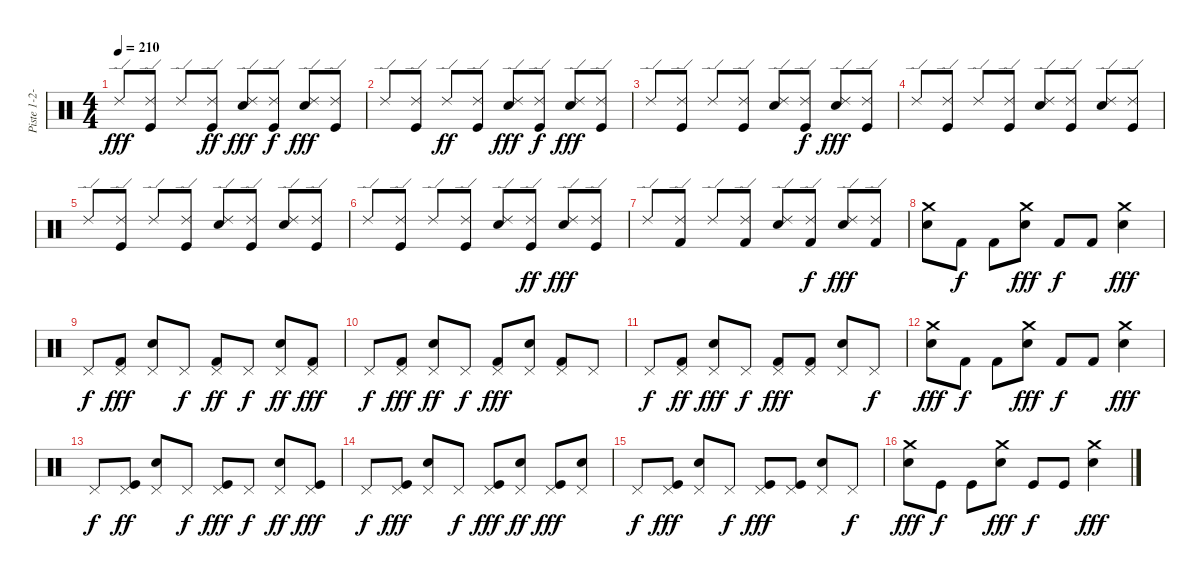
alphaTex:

\track ("Piste 1-2-3-4" "Piste 1-2-") {instrument percussion}
\staff {score}
\articulation defaults
\ts (4 4)
\tempo 210
\clef neutral
\ks c "Ride (edge) 2".8{dy fff}
("Ride (edge) 2" "Kick (hit)").8 "Ride (edge) 2".8 ("Ride (edge) 2" "Kick (hit)").8{dy ff} ("Ride (edge) 2" "Snare (hit) 2").8{dy fff} ("Ride (edge) 2" "Kick (hit)").8{dy f} ("Ride (edge) 2" "Snare (hit) 2").8{dy fff} ("Ride (edge) 2" "Kick (hit)").8 |
"Ride (edge) 2".8 ("Ride (edge) 2" "Kick (hit)").8 "Ride (edge) 2".8{dy ff} ("Ride (edge) 2" "Kick (hit)").8 ("Ride (edge) 2" "Snare (hit) 2").8{dy fff} ("Ride (edge) 2" "Kick (hit)").8{dy f} ("Ride (edge) 2" "Snare (hit) 2").8{dy fff} ("Ride (edge) 2" "Kick (hit)").8 |
"Ride (edge) 2".8 ("Ride (edge) 2" "Kick (hit)").8 "Ride (edge) 2".8 ("Ride (edge) 2" "Kick (hit)").8 ("Ride (edge) 2" "Snare (hit) 2").8 ("Ride (edge) 2" "Kick (hit)").8{dy f} ("Ride (edge) 2" "Snare (hit) 2").8{dy fff} ("Ride (edge) 2" "Kick (hit)").8 |
"Ride (edge) 2".8 ("Ride (edge) 2" "Kick (hit)").8 "Ride (edge) 2".8 ("Ride (edge) 2" "Kick (hit)").8 ("Ride (edge) 2" "Snare (hit) 2").8 ("Ride (edge) 2" "Kick (hit)").8 ("Ride (edge) 2" "Snare (hit) 2").8 ("Ride (edge) 2" "Kick (hit)").8 |
"Ride (edge) 2".8 ("Ride (edge) 2" "Kick (hit)").8 "Ride (edge) 2".8 ("Ride (edge) 2" "Kick (hit)").8 ("Ride (edge) 2" "Snare (hit) 2").8 ("Ride (edge) 2" "Kick (hit)").8 ("Ride (edge) 2" "Snare (hit) 2").8 ("Ride (edge) 2" "Kick (hit)").8 |
"Ride (edge) 2".8 ("Ride (edge) 2" "Kick (hit)").8 "Ride (edge) 2".8 ("Ride (edge) 2" "Kick (hit)").8 ("Ride (edge) 2" "Snare (hit) 2").8 ("Ride (edge) 2" "Kick (hit)").8{dy ff} ("Ride (edge) 2" "Snare (hit) 2").8{dy fff} ("Ride (edge) 2" "Kick (hit)").8 |
"Ride (edge) 2".8 ("Ride (edge) 2" "Kick (hit) 2").8 "Ride (edge) 2".8 ("Ride (edge) 2" "Kick (hit) 2").8 ("Ride (edge) 2" "Snare (hit) 2").8 ("Ride (edge) 2" "Kick (hit) 2").8{dy f} ("Ride (edge) 2" "Snare (hit) 2").8{dy fff} ("Ride (edge) 2" "Kick (hit) 2").8 |
("Crash medium (hit)" "Snare (hit) 2").8 "Kick (hit) 2".8{dy f} "Kick (hit) 2".8 ("Crash medium (hit)" "Snare (hit) 2").8{dy fff} "Kick (hit) 2".8{dy f} "Kick (hit) 2".8 ("Crash medium (hit)" "Snare (hit) 2").4{dy fff} |
"Pedal Hi-Hat (hit)".8{dy f} ("Pedal Hi-Hat (hit)" "Kick (hit) 2").8{dy fff} ("Pedal Hi-Hat (hit)" "Snare (hit) 2").8 "Pedal Hi-Hat (hit)".8{dy f} ("Pedal Hi-Hat (hit)" "Kick (hit) 2").8{dy ff} "Pedal Hi-Hat (hit)".8{dy f} ("Pedal Hi-Hat (hit)" "Snare (hit) 2").8{dy ff} ("Pedal Hi-Hat (hit)" "Kick (hit) 2").8{dy fff} |
"Pedal Hi-Hat (hit)".8{dy f} ("Pedal Hi-Hat (hit)" "Kick (hit) 2").8{dy fff} ("Pedal Hi-Hat (hit)" "Snare (hit) 2").8{dy ff} "Pedal Hi-Hat (hit)".8{dy f} ("Pedal Hi-Hat (hit)" "Kick (hit) 2").8{dy fff} ("Pedal Hi-Hat (hit)" "Snare (hit) 2").8 ("Pedal Hi-Hat (hit)" "Kick (hit) 2").8 "Pedal Hi-Hat (hit)".8 |
"Pedal Hi-Hat (hit)".8{dy f} ("Pedal Hi-Hat (hit)" "Kick (hit) 2").8{dy ff} ("Pedal Hi-Hat (hit)" "Snare (hit) 2").8{dy fff} "Pedal Hi-Hat (hit)".8{dy f} ("Pedal Hi-Hat (hit)" "Kick (hit) 2").8{dy fff} ("Pedal Hi-Hat (hit)" "Kick (hit) 2").8 ("Pedal Hi-Hat (hit)" "Snare (hit) 2").8 "Pedal Hi-Hat (hit)".8{dy f} |
("Crash medium (hit)" "Snare (hit) 2").8{dy fff} "Kick (hit) 2".8{dy f} "Kick (hit) 2".8 ("Crash medium (hit)" "Snare (hit) 2").8{dy fff} "Kick (hit) 2".8{dy f} "Kick (hit) 2".8 ("Crash medium (hit)" "Snare (hit) 2").4{dy fff} |
"Pedal Hi-Hat (hit)".8{dy f} ("Pedal Hi-Hat (hit)" "Kick (hit)").8{dy ff} ("Pedal Hi-Hat (hit)" "Snare (hit) 2").8 "Pedal Hi-Hat (hit)".8{dy f} ("Pedal Hi-Hat (hit)" "Kick (hit)").8{dy fff} "Pedal Hi-Hat (hit)".8{dy f} ("Pedal Hi-Hat (hit)" "Snare (hit) 2").8{dy ff} ("Pedal Hi-Hat (hit)" "Kick (hit)").8{dy fff} |
"Pedal Hi-Hat (hit)".8{dy f} ("Pedal Hi-Hat (hit)" "Kick (hit)").8{dy fff} ("Pedal Hi-Hat (hit)" "Snare (hit) 2").8 "Pedal Hi-Hat (hit)".8{dy f} ("Pedal Hi-Hat (hit)" "Kick (hit)").8{dy fff} ("Pedal Hi-Hat (hit)" "Snare (hit) 2").8{dy ff} ("Pedal Hi-Hat (hit)" "Kick (hit)").8{dy fff} ("Pedal Hi-Hat (hit)" "Snare (hit) 2").8 |
"Pedal Hi-Hat (hit)".8{dy f} ("Pedal Hi-Hat (hit)" "Kick (hit)").8{dy fff} ("Pedal Hi-Hat (hit)" "Snare (hit) 2").8 "Pedal Hi-Hat (hit)".8{dy f} ("Pedal Hi-Hat (hit)" "Kick (hit)").8{dy fff} ("Pedal Hi-Hat (hit)" "Kick (hit)").8 ("Pedal Hi-Hat (hit)" "Snare (hit) 2").8 "Pedal Hi-Hat (hit)".8{dy f} |
("Crash medium (hit)" "Snare (hit) 2").8{dy fff} "Kick (hit)".8{dy f} "Kick (hit)".8 ("Crash medium (hit)" "Snare (hit) 2").8{dy fff} "Kick (hit)".8{dy f} "Kick (hit)".8 ("Crash medium (hit)" "Snare (hit) 2").4{dy fff}
